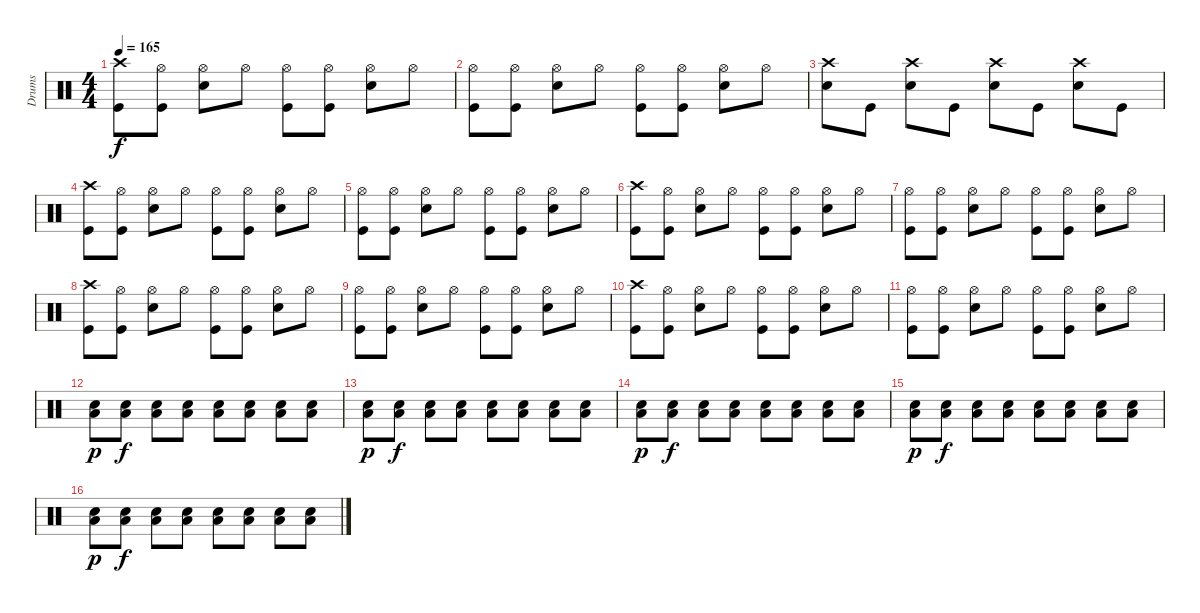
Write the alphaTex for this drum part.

\track ("Drums" "Drums") {instrument percussion}
\staff {score}
\articulation defaults
\ts (4 4)
\tempo 165
\clef neutral
\ks c
("Crash high (hit)" "Kick (hit)").8{dy f} ("Hi-Hat (open)" "Kick (hit)").8 ("Hi-Hat (open)" "Snare (hit) 2").8 "Hi-Hat (open)".8 ("Hi-Hat (open)" "Kick (hit)").8 ("Hi-Hat (open)" "Kick (hit)").8 ("Hi-Hat (open)" "Snare (hit) 2").8 "Hi-Hat (open)".8 |
("Hi-Hat (open)" "Kick (hit)").8 ("Hi-Hat (open)" "Kick (hit)").8 ("Hi-Hat (open)" "Snare (hit) 2").8 "Hi-Hat (open)".8 ("Hi-Hat (open)" "Kick (hit)").8 ("Hi-Hat (open)" "Kick (hit)").8 ("Hi-Hat (open)" "Snare (hit) 2").8 "Hi-Hat (open)".8 |
("Crash high (hit)" "Snare (hit) 2").8 "Kick (hit)".8 ("Crash high (hit)" "Snare (hit) 2").8 "Kick (hit)".8 ("Crash high (hit)" "Snare (hit) 2").8 "Kick (hit)".8 ("Crash high (hit)" "Snare (hit) 2").8 "Kick (hit)".8 |
("Crash high (hit)" "Kick (hit)").8 ("Hi-Hat (open)" "Kick (hit)").8 ("Hi-Hat (open)" "Snare (hit) 2").8 "Hi-Hat (open)".8 ("Hi-Hat (open)" "Kick (hit)").8 ("Hi-Hat (open)" "Kick (hit)").8 ("Hi-Hat (open)" "Snare (hit) 2").8 "Hi-Hat (open)".8 |
("Hi-Hat (open)" "Kick (hit)").8 ("Hi-Hat (open)" "Kick (hit)").8 ("Hi-Hat (open)" "Snare (hit) 2").8 "Hi-Hat (open)".8 ("Hi-Hat (open)" "Kick (hit)").8 ("Hi-Hat (open)" "Kick (hit)").8 ("Hi-Hat (open)" "Snare (hit) 2").8 "Hi-Hat (open)".8 |
("Crash high (hit)" "Kick (hit)").8 ("Hi-Hat (open)" "Kick (hit)").8 ("Hi-Hat (open)" "Snare (hit) 2").8 "Hi-Hat (open)".8 ("Hi-Hat (open)" "Kick (hit)").8 ("Hi-Hat (open)" "Kick (hit)").8 ("Hi-Hat (open)" "Snare (hit) 2").8 "Hi-Hat (open)".8 |
("Hi-Hat (open)" "Kick (hit)").8 ("Hi-Hat (open)" "Kick (hit)").8 ("Hi-Hat (open)" "Snare (hit) 2").8 "Hi-Hat (open)".8 ("Hi-Hat (open)" "Kick (hit)").8 ("Hi-Hat (open)" "Kick (hit)").8 ("Hi-Hat (open)" "Snare (hit) 2").8 "Hi-Hat (open)".8 |
("Crash high (hit)" "Kick (hit)").8 ("Hi-Hat (open)" "Kick (hit)").8 ("Hi-Hat (open)" "Snare (hit) 2").8 "Hi-Hat (open)".8 ("Hi-Hat (open)" "Kick (hit)").8 ("Hi-Hat (open)" "Kick (hit)").8 ("Hi-Hat (open)" "Snare (hit) 2").8 "Hi-Hat (open)".8 |
("Hi-Hat (open)" "Kick (hit)").8 ("Hi-Hat (open)" "Kick (hit)").8 ("Hi-Hat (open)" "Snare (hit) 2").8 "Hi-Hat (open)".8 ("Hi-Hat (open)" "Kick (hit)").8 ("Hi-Hat (open)" "Kick (hit)").8 ("Hi-Hat (open)" "Snare (hit) 2").8 "Hi-Hat (open)".8 |
("Crash high (hit)" "Kick (hit)").8 ("Hi-Hat (open)" "Kick (hit)").8 ("Hi-Hat (open)" "Snare (hit) 2").8 "Hi-Hat (open)".8 ("Hi-Hat (open)" "Kick (hit)").8 ("Hi-Hat (open)" "Kick (hit)").8 ("Hi-Hat (open)" "Snare (hit) 2").8 "Hi-Hat (open)".8 |
("Hi-Hat (open)" "Kick (hit)").8 ("Hi-Hat (open)" "Kick (hit)").8 ("Hi-Hat (open)" "Snare (hit) 2").8 "Hi-Hat (open)".8 ("Hi-Hat (open)" "Kick (hit)").8 ("Hi-Hat (open)" "Kick (hit)").8 ("Hi-Hat (open)" "Snare (hit) 2").8 "Hi-Hat (open)".8 |
("Low Tom (hit)" "Snare (hit) 2").8{dy p} ("Low Tom (hit)" "Snare (hit) 2").8{dy f} ("Low Tom (hit)" "Snare (hit) 2").8 ("Low Tom (hit)" "Snare (hit) 2").8 ("Low Tom (hit)" "Snare (hit) 2").8 ("Low Tom (hit)" "Snare (hit) 2").8 ("Low Tom (hit)" "Snare (hit) 2").8 ("Low Tom (hit)" "Snare (hit) 2").8 |
("Low Tom (hit)" "Snare (hit) 2").8{dy p} ("Low Tom (hit)" "Snare (hit) 2").8{dy f} ("Low Tom (hit)" "Snare (hit) 2").8 ("Low Tom (hit)" "Snare (hit) 2").8 ("Low Tom (hit)" "Snare (hit) 2").8 ("Low Tom (hit)" "Snare (hit) 2").8 ("Low Tom (hit)" "Snare (hit) 2").8 ("Low Tom (hit)" "Snare (hit) 2").8 |
("Low Tom (hit)" "Snare (hit) 2").8{dy p} ("Low Tom (hit)" "Snare (hit) 2").8{dy f} ("Low Tom (hit)" "Snare (hit) 2").8 ("Low Tom (hit)" "Snare (hit) 2").8 ("Low Tom (hit)" "Snare (hit) 2").8 ("Low Tom (hit)" "Snare (hit) 2").8 ("Low Tom (hit)" "Snare (hit) 2").8 ("Low Tom (hit)" "Snare (hit) 2").8 |
("Low Tom (hit)" "Snare (hit) 2").8{dy p} ("Low Tom (hit)" "Snare (hit) 2").8{dy f} ("Low Tom (hit)" "Snare (hit) 2").8 ("Low Tom (hit)" "Snare (hit) 2").8 ("Low Tom (hit)" "Snare (hit) 2").8 ("Low Tom (hit)" "Snare (hit) 2").8 ("Low Tom (hit)" "Snare (hit) 2").8 ("Low Tom (hit)" "Snare (hit) 2").8 |
("Low Tom (hit)" "Snare (hit) 2").8{dy p} ("Low Tom (hit)" "Snare (hit) 2").8{dy f} ("Low Tom (hit)" "Snare (hit) 2").8 ("Low Tom (hit)" "Snare (hit) 2").8 ("Low Tom (hit)" "Snare (hit) 2").8 ("Low Tom (hit)" "Snare (hit) 2").8 ("Low Tom (hit)" "Snare (hit) 2").8 ("Low Tom (hit)" "Snare (hit) 2").8
